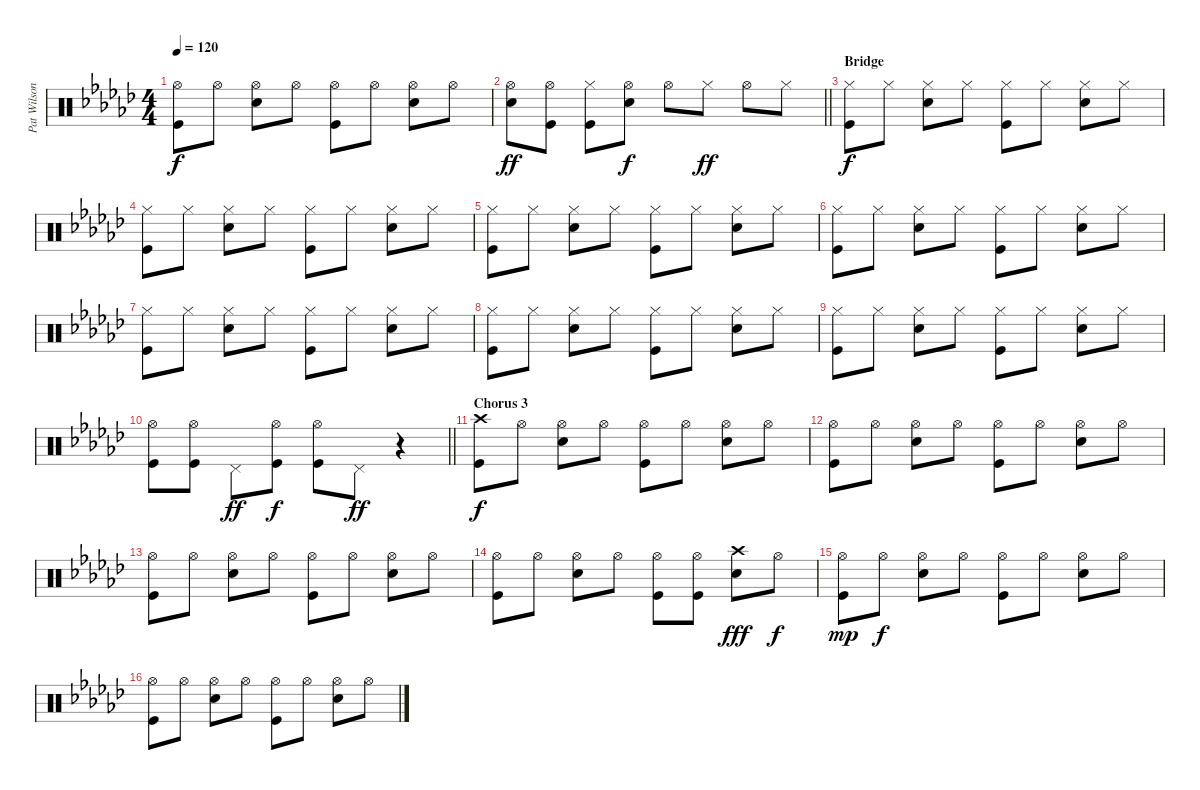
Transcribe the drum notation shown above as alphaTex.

\track ("Pat Wilson" "Pat Wilson") {instrument percussion}
\staff {score}
\articulation defaults
\ts (4 4)
\tempo 120
\clef neutral
\ks gb
("Hi-Hat (open)" "Kick (hit)").8{dy f} "Hi-Hat (open)".8 ("Hi-Hat (open)" "Snare (hit) 2").8 "Hi-Hat (open)".8 ("Hi-Hat (open)" "Kick (hit)").8 "Hi-Hat (open)".8 ("Hi-Hat (open)" "Snare (hit) 2").8 "Hi-Hat (open)".8 |
\barLineRight lightlight
("Hi-Hat (open)" "Snare (hit) 2").8{dy ff} ("Hi-Hat (open)" "Kick (hit)").8 ("Hi-Hat (closed)" "Kick (hit)").8 ("Hi-Hat (open)" "Snare (hit) 2").8{dy f} "Hi-Hat (open)".8 "Hi-Hat (closed)".8{dy ff} "Hi-Hat (open)".8 "Hi-Hat (closed)".8 |
\section ("" "Bridge")
("Hi-Hat (closed)" "Kick (hit)").8{dy f} "Hi-Hat (closed)".8 ("Hi-Hat (closed)" "Snare (hit) 2").8 "Hi-Hat (closed)".8 ("Hi-Hat (closed)" "Kick (hit)").8 "Hi-Hat (closed)".8 ("Hi-Hat (closed)" "Snare (hit) 2").8 "Hi-Hat (closed)".8 |
("Hi-Hat (closed)" "Kick (hit)").8 "Hi-Hat (closed)".8 ("Hi-Hat (closed)" "Snare (hit) 2").8 "Hi-Hat (closed)".8 ("Hi-Hat (closed)" "Kick (hit)").8 "Hi-Hat (closed)".8 ("Hi-Hat (closed)" "Snare (hit) 2").8 "Hi-Hat (closed)".8 |
("Hi-Hat (closed)" "Kick (hit)").8 "Hi-Hat (closed)".8 ("Hi-Hat (closed)" "Snare (hit) 2").8 "Hi-Hat (closed)".8 ("Hi-Hat (closed)" "Kick (hit)").8 "Hi-Hat (closed)".8 ("Hi-Hat (closed)" "Snare (hit) 2").8 "Hi-Hat (closed)".8 |
("Hi-Hat (closed)" "Kick (hit)").8 "Hi-Hat (closed)".8 ("Hi-Hat (closed)" "Snare (hit) 2").8 "Hi-Hat (closed)".8 ("Hi-Hat (closed)" "Kick (hit)").8 "Hi-Hat (closed)".8 ("Hi-Hat (closed)" "Snare (hit) 2").8 "Hi-Hat (closed)".8 |
("Hi-Hat (closed)" "Kick (hit)").8 "Hi-Hat (closed)".8 ("Hi-Hat (closed)" "Snare (hit) 2").8 "Hi-Hat (closed)".8 ("Hi-Hat (closed)" "Kick (hit)").8 "Hi-Hat (closed)".8 ("Hi-Hat (closed)" "Snare (hit) 2").8 "Hi-Hat (closed)".8 |
("Hi-Hat (closed)" "Kick (hit)").8 "Hi-Hat (closed)".8 ("Hi-Hat (closed)" "Snare (hit) 2").8 "Hi-Hat (closed)".8 ("Hi-Hat (closed)" "Kick (hit)").8 "Hi-Hat (closed)".8 ("Hi-Hat (closed)" "Snare (hit) 2").8 "Hi-Hat (closed)".8 |
("Hi-Hat (closed)" "Kick (hit)").8 "Hi-Hat (closed)".8 ("Hi-Hat (closed)" "Snare (hit) 2").8 "Hi-Hat (closed)".8 ("Hi-Hat (closed)" "Kick (hit)").8 "Hi-Hat (closed)".8 ("Hi-Hat (closed)" "Snare (hit) 2").8 "Hi-Hat (closed)".8 |
\barLineRight lightlight
("Hi-Hat (open)" "Kick (hit)").8 ("Hi-Hat (open)" "Kick (hit)").8 "Pedal Hi-Hat (hit)".8{dy ff} ("Hi-Hat (open)" "Kick (hit)").8{dy f} ("Hi-Hat (open)" "Kick (hit)").8 "Pedal Hi-Hat (hit)".8{dy ff} r.4 |
\section ("" "Chorus 3")
("Crash high (hit)" "Kick (hit)").8{dy f} "Hi-Hat (open)".8 ("Hi-Hat (open)" "Snare (hit) 2").8 "Hi-Hat (open)".8 ("Hi-Hat (open)" "Kick (hit)").8 "Hi-Hat (open)".8 ("Hi-Hat (open)" "Snare (hit) 2").8 "Hi-Hat (open)".8 |
("Hi-Hat (open)" "Kick (hit)").8 "Hi-Hat (open)".8 ("Hi-Hat (open)" "Snare (hit) 2").8 "Hi-Hat (open)".8 ("Hi-Hat (open)" "Kick (hit)").8 "Hi-Hat (open)".8 ("Hi-Hat (open)" "Snare (hit) 2").8 "Hi-Hat (open)".8 |
("Hi-Hat (open)" "Kick (hit)").8 "Hi-Hat (open)".8 ("Hi-Hat (open)" "Snare (hit) 2").8 "Hi-Hat (open)".8 ("Hi-Hat (open)" "Kick (hit)").8 "Hi-Hat (open)".8 ("Hi-Hat (open)" "Snare (hit) 2").8 "Hi-Hat (open)".8 |
("Hi-Hat (open)" "Kick (hit)").8 "Hi-Hat (open)".8 ("Hi-Hat (open)" "Snare (hit) 2").8 "Hi-Hat (open)".8 ("Hi-Hat (open)" "Kick (hit)").8 ("Hi-Hat (open)" "Kick (hit)").8 ("Crash high (hit)" "Snare (hit) 2").8{dy fff} "Hi-Hat (open)".8{dy f} |
("Hi-Hat (open)" "Kick (hit)").8{dy mp} "Hi-Hat (open)".8{dy f} ("Hi-Hat (open)" "Snare (hit) 2").8 "Hi-Hat (open)".8 ("Hi-Hat (open)" "Kick (hit)").8 "Hi-Hat (open)".8 ("Hi-Hat (open)" "Snare (hit) 2").8 "Hi-Hat (open)".8 |
("Hi-Hat (open)" "Kick (hit)").8 "Hi-Hat (open)".8 ("Hi-Hat (open)" "Snare (hit) 2").8 "Hi-Hat (open)".8 ("Hi-Hat (open)" "Kick (hit)").8 "Hi-Hat (open)".8 ("Hi-Hat (open)" "Snare (hit) 2").8 "Hi-Hat (open)".8
